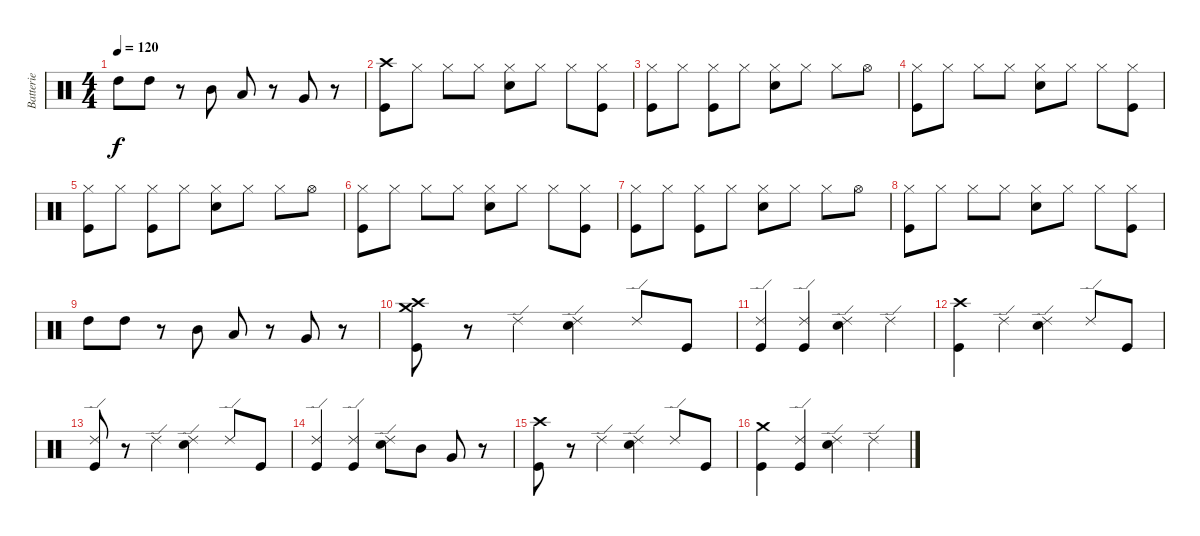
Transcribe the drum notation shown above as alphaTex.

\track ("Batterie" "Batterie") {instrument percussion}
\staff {score}
\articulation defaults
\ts (4 4)
\tempo 120
\clef neutral
\ks c "High Tom (hit)".8{dy f} "High Tom (hit)".8
r.8 "Mid Tom (hit)".8 "Low Tom (hit)".8 r.8 "Very Low Tom (hit)".8 r.8 |
("Crash high (hit)" "Kick (hit)").8 "Hi-Hat (closed)".8 "Hi-Hat (closed)".8 "Hi-Hat (closed)".8 ("Snare (hit) 2" "Hi-Hat (closed)").8 "Hi-Hat (closed)".8 "Hi-Hat (closed)".8 ("Kick (hit)" "Hi-Hat (closed)").8 |
("Hi-Hat (closed)" "Kick (hit)").8 "Hi-Hat (closed)".8 ("Kick (hit)" "Hi-Hat (closed)").8 "Hi-Hat (closed)".8 ("Snare (hit) 2" "Hi-Hat (closed)").8 "Hi-Hat (closed)".8 "Hi-Hat (closed)".8 "Hi-Hat (open)".8 |
("Kick (hit)" "Hi-Hat (closed)").8 "Hi-Hat (closed)".8 "Hi-Hat (closed)".8 "Hi-Hat (closed)".8 ("Snare (hit) 2" "Hi-Hat (closed)").8 "Hi-Hat (closed)".8 "Hi-Hat (closed)".8 ("Kick (hit)" "Hi-Hat (closed)").8 |
("Kick (hit)" "Hi-Hat (closed)").8 "Hi-Hat (closed)".8 ("Kick (hit)" "Hi-Hat (closed)").8 "Hi-Hat (closed)".8 ("Snare (hit) 2" "Hi-Hat (closed)").8 "Hi-Hat (closed)".8 "Hi-Hat (closed)".8 "Hi-Hat (open)".8 |
("Kick (hit)" "Hi-Hat (closed)").8 "Hi-Hat (closed)".8 "Hi-Hat (closed)".8 "Hi-Hat (closed)".8 ("Snare (hit) 2" "Hi-Hat (closed)").8 "Hi-Hat (closed)".8 "Hi-Hat (closed)".8 ("Kick (hit)" "Hi-Hat (closed)").8 |
("Kick (hit)" "Hi-Hat (closed)").8 "Hi-Hat (closed)".8 ("Kick (hit)" "Hi-Hat (closed)").8 "Hi-Hat (closed)".8 ("Snare (hit) 2" "Hi-Hat (closed)").8 "Hi-Hat (closed)".8 "Hi-Hat (closed)".8 "Hi-Hat (open)".8 |
("Hi-Hat (closed)" "Kick (hit)").8 "Hi-Hat (closed)".8 "Hi-Hat (closed)".8 "Hi-Hat (closed)".8 ("Snare (hit) 2" "Hi-Hat (closed)").8 "Hi-Hat (closed)".8 "Hi-Hat (closed)".8 ("Kick (hit)" "Hi-Hat (closed)").8 |
"High Tom (hit)".8 "High Tom (hit)".8 r.8 "Mid Tom (hit)".8 "Low Tom (hit)".8 r.8 "Very Low Tom (hit)".8 r.8 |
("Crash high (hit)" "Crash medium (hit)" "Kick (hit)").8 r.8 "Ride (edge) 2".4 ("Snare (hit) 2" "Ride (edge) 2").4 "Ride (edge) 2".8 "Kick (hit)".8 |
("Kick (hit)" "Ride (edge) 2").4 ("Ride (edge) 2" "Kick (hit)").4 ("Snare (hit) 2" "Ride (edge) 2").4 "Ride (edge) 2".4 |
("Crash high (hit)" "Kick (hit)").4 "Ride (edge) 2".4 ("Snare (hit) 2" "Ride (edge) 2").4 "Ride (edge) 2".8 "Kick (hit)".8 |
("Kick (hit)" "Ride (edge) 2").8 r.8 "Ride (edge) 2".4 ("Ride (edge) 2" "Snare (hit) 2").4 "Ride (edge) 2".8 "Kick (hit)".8 |
("Ride (edge) 2" "Kick (hit)").4 ("Kick (hit)" "Ride (edge) 2").4 ("Snare (hit) 2" "Ride (edge) 2").8 "Mid Tom (hit)".8 "Very Low Tom (hit)".8 r.8 |
("Kick (hit)" "Crash high (hit)").8 r.8 "Ride (edge) 2".4 ("Ride (edge) 2" "Snare (hit) 2").4 "Ride (edge) 2".8 "Kick (hit)".8 |
("Crash medium (hit)" "Kick (hit)").4 ("Kick (hit)" "Ride (edge) 2").4 ("Ride (edge) 2" "Snare (hit) 2").4 "Ride (edge) 2".4
